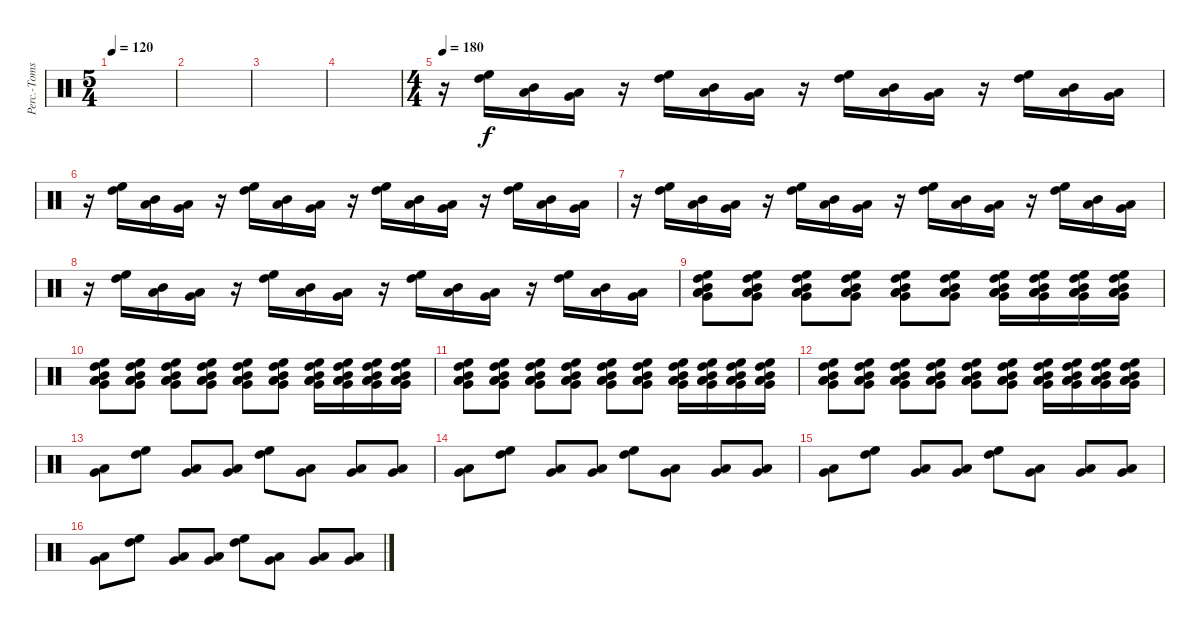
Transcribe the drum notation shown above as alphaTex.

\track ("Perc.-Toms " "Perc.-Toms") {instrument percussion}
\staff {score}
\articulation defaults
\ts (5 4)
\tempo 120
\clef neutral
\ks c
|
|
|
|
\ts (4 4)
\tempo 180
r.16 ("High Floor Tom (hit)" "High Tom (hit)").16 ("Mid Tom (hit)" "Low Tom (hit)").16 ("Very Low Tom (hit)" "Low Floor Tom (hit)").16 r.16 ("High Floor Tom (hit)" "High Tom (hit)").16 ("Mid Tom (hit)" "Low Tom (hit)").16 ("Very Low Tom (hit)" "Low Floor Tom (hit)").16 r.16 ("High Floor Tom (hit)" "High Tom (hit)").16 ("Mid Tom (hit)" "Low Tom (hit)").16 ("Very Low Tom (hit)" "Low Floor Tom (hit)").16 r.16 ("High Floor Tom (hit)" "High Tom (hit)").16 ("Mid Tom (hit)" "Low Tom (hit)").16 ("Very Low Tom (hit)" "Low Floor Tom (hit)").16 |
r.16 ("High Floor Tom (hit)" "High Tom (hit)").16 ("Mid Tom (hit)" "Low Tom (hit)").16 ("Very Low Tom (hit)" "Low Floor Tom (hit)").16 r.16 ("High Floor Tom (hit)" "High Tom (hit)").16 ("Mid Tom (hit)" "Low Tom (hit)").16 ("Very Low Tom (hit)" "Low Floor Tom (hit)").16 r.16 ("High Floor Tom (hit)" "High Tom (hit)").16 ("Mid Tom (hit)" "Low Tom (hit)").16 ("Very Low Tom (hit)" "Low Floor Tom (hit)").16 r.16 ("High Floor Tom (hit)" "High Tom (hit)").16 ("Mid Tom (hit)" "Low Tom (hit)").16 ("Very Low Tom (hit)" "Low Floor Tom (hit)").16 |
r.16 ("High Floor Tom (hit)" "High Tom (hit)").16 ("Mid Tom (hit)" "Low Tom (hit)").16 ("Very Low Tom (hit)" "Low Floor Tom (hit)").16 r.16 ("High Floor Tom (hit)" "High Tom (hit)").16 ("Mid Tom (hit)" "Low Tom (hit)").16 ("Very Low Tom (hit)" "Low Floor Tom (hit)").16 r.16 ("High Floor Tom (hit)" "High Tom (hit)").16 ("Mid Tom (hit)" "Low Tom (hit)").16 ("Very Low Tom (hit)" "Low Floor Tom (hit)").16 r.16 ("High Floor Tom (hit)" "High Tom (hit)").16 ("Mid Tom (hit)" "Low Tom (hit)").16 ("Very Low Tom (hit)" "Low Floor Tom (hit)").16 |
r.16 ("High Floor Tom (hit)" "High Tom (hit)").16 ("Mid Tom (hit)" "Low Tom (hit)").16 ("Very Low Tom (hit)" "Low Floor Tom (hit)").16 r.16 ("High Floor Tom (hit)" "High Tom (hit)").16 ("Mid Tom (hit)" "Low Tom (hit)").16 ("Very Low Tom (hit)" "Low Floor Tom (hit)").16 r.16 ("High Floor Tom (hit)" "High Tom (hit)").16 ("Mid Tom (hit)" "Low Tom (hit)").16 ("Very Low Tom (hit)" "Low Floor Tom (hit)").16 r.16 ("High Floor Tom (hit)" "High Tom (hit)").16 ("Mid Tom (hit)" "Low Tom (hit)").16 ("Very Low Tom (hit)" "Low Floor Tom (hit)").16 |
("High Floor Tom (hit)" "High Tom (hit)" "Mid Tom (hit)" "Low Tom (hit)" "Very Low Tom (hit)" "Low Floor Tom (hit)").8 ("High Floor Tom (hit)" "High Tom (hit)" "Mid Tom (hit)" "Low Tom (hit)" "Very Low Tom (hit)" "Low Floor Tom (hit)").8 ("High Floor Tom (hit)" "High Tom (hit)" "Mid Tom (hit)" "Low Tom (hit)" "Very Low Tom (hit)" "Low Floor Tom (hit)").8 ("High Floor Tom (hit)" "High Tom (hit)" "Mid Tom (hit)" "Low Tom (hit)" "Very Low Tom (hit)" "Low Floor Tom (hit)").8 ("High Floor Tom (hit)" "High Tom (hit)" "Mid Tom (hit)" "Low Tom (hit)" "Very Low Tom (hit)" "Low Floor Tom (hit)").8 ("High Floor Tom (hit)" "High Tom (hit)" "Mid Tom (hit)" "Low Tom (hit)" "Very Low Tom (hit)" "Low Floor Tom (hit)").8 ("High Floor Tom (hit)" "High Tom (hit)" "Mid Tom (hit)" "Low Tom (hit)" "Very Low Tom (hit)" "Low Floor Tom (hit)").16 ("High Floor Tom (hit)" "High Tom (hit)" "Mid Tom (hit)" "Low Tom (hit)" "Very Low Tom (hit)" "Low Floor Tom (hit)").16 ("High Floor Tom (hit)" "High Tom (hit)" "Mid Tom (hit)" "Low Tom (hit)" "Very Low Tom (hit)" "Low Floor Tom (hit)").16 ("High Floor Tom (hit)" "High Tom (hit)" "Mid Tom (hit)" "Low Tom (hit)" "Very Low Tom (hit)" "Low Floor Tom (hit)").16 |
("High Floor Tom (hit)" "High Tom (hit)" "Mid Tom (hit)" "Low Tom (hit)" "Very Low Tom (hit)" "Low Floor Tom (hit)").8 ("High Floor Tom (hit)" "High Tom (hit)" "Mid Tom (hit)" "Low Tom (hit)" "Very Low Tom (hit)" "Low Floor Tom (hit)").8 ("High Floor Tom (hit)" "High Tom (hit)" "Mid Tom (hit)" "Low Tom (hit)" "Very Low Tom (hit)" "Low Floor Tom (hit)").8 ("High Floor Tom (hit)" "High Tom (hit)" "Mid Tom (hit)" "Low Tom (hit)" "Very Low Tom (hit)" "Low Floor Tom (hit)").8 ("High Floor Tom (hit)" "High Tom (hit)" "Mid Tom (hit)" "Low Tom (hit)" "Very Low Tom (hit)" "Low Floor Tom (hit)").8 ("High Floor Tom (hit)" "High Tom (hit)" "Mid Tom (hit)" "Low Tom (hit)" "Very Low Tom (hit)" "Low Floor Tom (hit)").8 ("High Floor Tom (hit)" "High Tom (hit)" "Mid Tom (hit)" "Low Tom (hit)" "Very Low Tom (hit)" "Low Floor Tom (hit)").16 ("High Floor Tom (hit)" "High Tom (hit)" "Mid Tom (hit)" "Low Tom (hit)" "Very Low Tom (hit)" "Low Floor Tom (hit)").16 ("High Floor Tom (hit)" "High Tom (hit)" "Mid Tom (hit)" "Low Tom (hit)" "Very Low Tom (hit)" "Low Floor Tom (hit)").16 ("High Floor Tom (hit)" "High Tom (hit)" "Mid Tom (hit)" "Low Tom (hit)" "Very Low Tom (hit)" "Low Floor Tom (hit)").16 |
("High Floor Tom (hit)" "High Tom (hit)" "Mid Tom (hit)" "Low Tom (hit)" "Very Low Tom (hit)" "Low Floor Tom (hit)").8 ("High Floor Tom (hit)" "High Tom (hit)" "Mid Tom (hit)" "Low Tom (hit)" "Very Low Tom (hit)" "Low Floor Tom (hit)").8 ("High Floor Tom (hit)" "High Tom (hit)" "Mid Tom (hit)" "Low Tom (hit)" "Very Low Tom (hit)" "Low Floor Tom (hit)").8 ("High Floor Tom (hit)" "High Tom (hit)" "Mid Tom (hit)" "Low Tom (hit)" "Very Low Tom (hit)" "Low Floor Tom (hit)").8 ("High Floor Tom (hit)" "High Tom (hit)" "Mid Tom (hit)" "Low Tom (hit)" "Very Low Tom (hit)" "Low Floor Tom (hit)").8 ("High Floor Tom (hit)" "High Tom (hit)" "Mid Tom (hit)" "Low Tom (hit)" "Very Low Tom (hit)" "Low Floor Tom (hit)").8 ("High Floor Tom (hit)" "High Tom (hit)" "Mid Tom (hit)" "Low Tom (hit)" "Very Low Tom (hit)" "Low Floor Tom (hit)").16 ("High Floor Tom (hit)" "High Tom (hit)" "Mid Tom (hit)" "Low Tom (hit)" "Very Low Tom (hit)" "Low Floor Tom (hit)").16 ("High Floor Tom (hit)" "High Tom (hit)" "Mid Tom (hit)" "Low Tom (hit)" "Very Low Tom (hit)" "Low Floor Tom (hit)").16 ("High Floor Tom (hit)" "High Tom (hit)" "Mid Tom (hit)" "Low Tom (hit)" "Very Low Tom (hit)" "Low Floor Tom (hit)").16 |
("High Floor Tom (hit)" "High Tom (hit)" "Mid Tom (hit)" "Low Tom (hit)" "Very Low Tom (hit)" "Low Floor Tom (hit)").8 ("High Floor Tom (hit)" "High Tom (hit)" "Mid Tom (hit)" "Low Tom (hit)" "Very Low Tom (hit)" "Low Floor Tom (hit)").8 ("High Floor Tom (hit)" "High Tom (hit)" "Mid Tom (hit)" "Low Tom (hit)" "Very Low Tom (hit)" "Low Floor Tom (hit)").8 ("High Floor Tom (hit)" "High Tom (hit)" "Mid Tom (hit)" "Low Tom (hit)" "Very Low Tom (hit)" "Low Floor Tom (hit)").8 ("High Floor Tom (hit)" "High Tom (hit)" "Mid Tom (hit)" "Low Tom (hit)" "Very Low Tom (hit)" "Low Floor Tom (hit)").8 ("High Floor Tom (hit)" "High Tom (hit)" "Mid Tom (hit)" "Low Tom (hit)" "Very Low Tom (hit)" "Low Floor Tom (hit)").8 ("High Floor Tom (hit)" "High Tom (hit)" "Mid Tom (hit)" "Low Tom (hit)" "Very Low Tom (hit)" "Low Floor Tom (hit)").16 ("High Floor Tom (hit)" "High Tom (hit)" "Mid Tom (hit)" "Low Tom (hit)" "Very Low Tom (hit)" "Low Floor Tom (hit)").16 ("High Floor Tom (hit)" "High Tom (hit)" "Mid Tom (hit)" "Low Tom (hit)" "Very Low Tom (hit)" "Low Floor Tom (hit)").16 ("High Floor Tom (hit)" "High Tom (hit)" "Mid Tom (hit)" "Low Tom (hit)" "Very Low Tom (hit)" "Low Floor Tom (hit)").16 |
("Very Low Tom (hit)" "Low Floor Tom (hit)").8 ("High Floor Tom (hit)" "High Tom (hit)").8 ("Very Low Tom (hit)" "Low Floor Tom (hit)").8 ("Very Low Tom (hit)" "Low Floor Tom (hit)").8 ("High Floor Tom (hit)" "High Tom (hit)").8 ("Very Low Tom (hit)" "Low Floor Tom (hit)").8 ("Very Low Tom (hit)" "Low Floor Tom (hit)").8 ("Very Low Tom (hit)" "Low Floor Tom (hit)").8 |
("Very Low Tom (hit)" "Low Floor Tom (hit)").8 ("High Floor Tom (hit)" "High Tom (hit)").8 ("Very Low Tom (hit)" "Low Floor Tom (hit)").8 ("Very Low Tom (hit)" "Low Floor Tom (hit)").8 ("High Floor Tom (hit)" "High Tom (hit)").8 ("Very Low Tom (hit)" "Low Floor Tom (hit)").8 ("Very Low Tom (hit)" "Low Floor Tom (hit)").8 ("Very Low Tom (hit)" "Low Floor Tom (hit)").8 |
("Very Low Tom (hit)" "Low Floor Tom (hit)").8 ("High Floor Tom (hit)" "High Tom (hit)").8 ("Very Low Tom (hit)" "Low Floor Tom (hit)").8 ("Very Low Tom (hit)" "Low Floor Tom (hit)").8 ("High Floor Tom (hit)" "High Tom (hit)").8 ("Very Low Tom (hit)" "Low Floor Tom (hit)").8 ("Very Low Tom (hit)" "Low Floor Tom (hit)").8 ("Very Low Tom (hit)" "Low Floor Tom (hit)").8 |
("Very Low Tom (hit)" "Low Floor Tom (hit)").8 ("High Floor Tom (hit)" "High Tom (hit)").8 ("Very Low Tom (hit)" "Low Floor Tom (hit)").8 ("Very Low Tom (hit)" "Low Floor Tom (hit)").8 ("High Floor Tom (hit)" "High Tom (hit)").8 ("Very Low Tom (hit)" "Low Floor Tom (hit)").8 ("Very Low Tom (hit)" "Low Floor Tom (hit)").8 ("Very Low Tom (hit)" "Low Floor Tom (hit)").8
